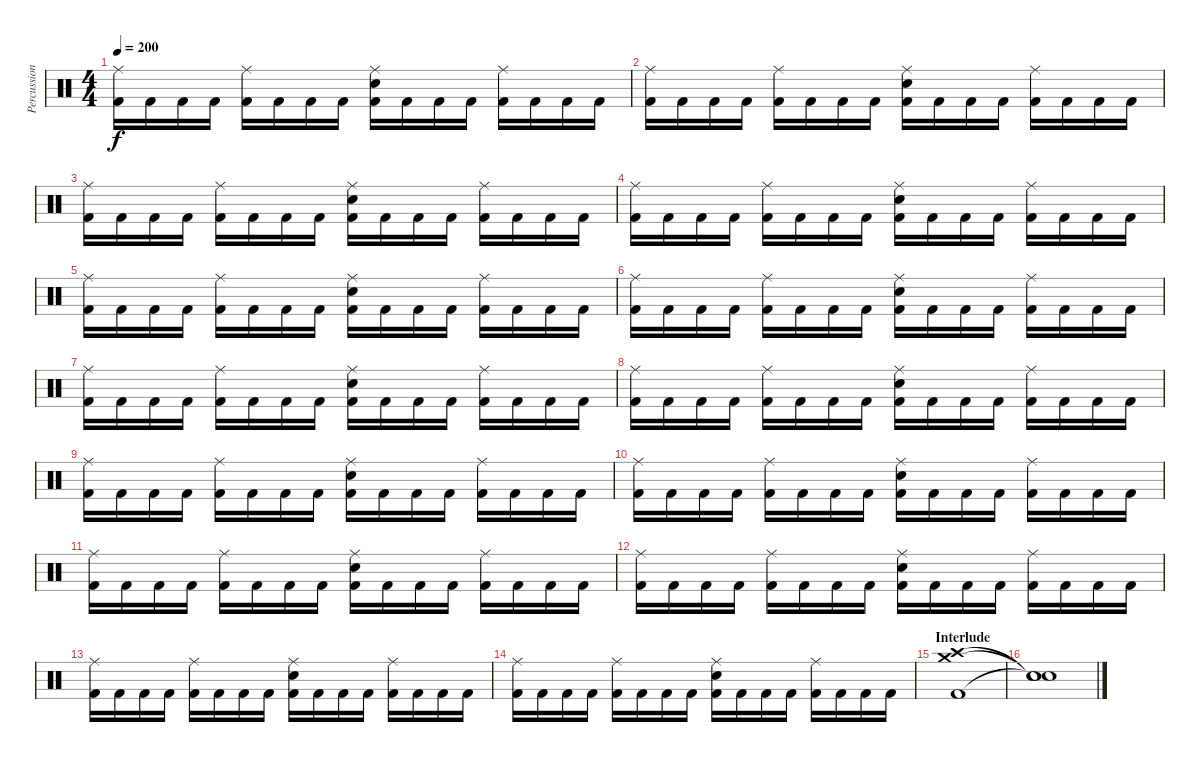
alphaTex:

\track ("Percussions" "Percussion") {instrument percussion}
\staff {score}
\articulation defaults
\ts (4 4)
\tempo 200
\clef neutral
\ks c
("Ride (middle)" "Kick (hit) 2").16{dy f} "Kick (hit) 2".16 "Kick (hit) 2".16 "Kick (hit) 2".16 ("Ride (middle)" "Kick (hit) 2").16 "Kick (hit) 2".16 "Kick (hit) 2".16 "Kick (hit) 2".16 ("Ride (middle)" "Electric Snare (hit)" "Kick (hit) 2").16 "Kick (hit) 2".16 "Kick (hit) 2".16 "Kick (hit) 2".16 ("Ride (middle)" "Kick (hit) 2").16 "Kick (hit) 2".16 "Kick (hit) 2".16 "Kick (hit) 2".16 |
("Ride (middle)" "Kick (hit) 2").16 "Kick (hit) 2".16 "Kick (hit) 2".16 "Kick (hit) 2".16 ("Ride (middle)" "Kick (hit) 2").16 "Kick (hit) 2".16 "Kick (hit) 2".16 "Kick (hit) 2".16 ("Ride (middle)" "Electric Snare (hit)" "Kick (hit) 2").16 "Kick (hit) 2".16 "Kick (hit) 2".16 "Kick (hit) 2".16 ("Ride (middle)" "Kick (hit) 2").16 "Kick (hit) 2".16 "Kick (hit) 2".16 "Kick (hit) 2".16 |
("Ride (middle)" "Kick (hit) 2").16 "Kick (hit) 2".16 "Kick (hit) 2".16 "Kick (hit) 2".16 ("Ride (middle)" "Kick (hit) 2").16 "Kick (hit) 2".16 "Kick (hit) 2".16 "Kick (hit) 2".16 ("Ride (middle)" "Electric Snare (hit)" "Kick (hit) 2").16 "Kick (hit) 2".16 "Kick (hit) 2".16 "Kick (hit) 2".16 ("Ride (middle)" "Kick (hit) 2").16 "Kick (hit) 2".16 "Kick (hit) 2".16 "Kick (hit) 2".16 |
("Ride (middle)" "Kick (hit) 2").16 "Kick (hit) 2".16 "Kick (hit) 2".16 "Kick (hit) 2".16 ("Ride (middle)" "Kick (hit) 2").16 "Kick (hit) 2".16 "Kick (hit) 2".16 "Kick (hit) 2".16 ("Ride (middle)" "Electric Snare (hit)" "Kick (hit) 2").16 "Kick (hit) 2".16 "Kick (hit) 2".16 "Kick (hit) 2".16 ("Ride (middle)" "Kick (hit) 2").16 "Kick (hit) 2".16 "Kick (hit) 2".16 "Kick (hit) 2".16 |
("Ride (middle)" "Kick (hit) 2").16 "Kick (hit) 2".16 "Kick (hit) 2".16 "Kick (hit) 2".16 ("Ride (middle)" "Kick (hit) 2").16 "Kick (hit) 2".16 "Kick (hit) 2".16 "Kick (hit) 2".16 ("Ride (middle)" "Electric Snare (hit)" "Kick (hit) 2").16 "Kick (hit) 2".16 "Kick (hit) 2".16 "Kick (hit) 2".16 ("Ride (middle)" "Kick (hit) 2").16 "Kick (hit) 2".16 "Kick (hit) 2".16 "Kick (hit) 2".16 |
("Ride (middle)" "Kick (hit) 2").16 "Kick (hit) 2".16 "Kick (hit) 2".16 "Kick (hit) 2".16 ("Ride (middle)" "Kick (hit) 2").16 "Kick (hit) 2".16 "Kick (hit) 2".16 "Kick (hit) 2".16 ("Ride (middle)" "Electric Snare (hit)" "Kick (hit) 2").16 "Kick (hit) 2".16 "Kick (hit) 2".16 "Kick (hit) 2".16 ("Ride (middle)" "Kick (hit) 2").16 "Kick (hit) 2".16 "Kick (hit) 2".16 "Kick (hit) 2".16 |
("Ride (middle)" "Kick (hit) 2").16 "Kick (hit) 2".16 "Kick (hit) 2".16 "Kick (hit) 2".16 ("Ride (middle)" "Kick (hit) 2").16 "Kick (hit) 2".16 "Kick (hit) 2".16 "Kick (hit) 2".16 ("Ride (middle)" "Electric Snare (hit)" "Kick (hit) 2").16 "Kick (hit) 2".16 "Kick (hit) 2".16 "Kick (hit) 2".16 ("Ride (middle)" "Kick (hit) 2").16 "Kick (hit) 2".16 "Kick (hit) 2".16 "Kick (hit) 2".16 |
("Ride (middle)" "Kick (hit) 2").16 "Kick (hit) 2".16 "Kick (hit) 2".16 "Kick (hit) 2".16 ("Ride (middle)" "Kick (hit) 2").16 "Kick (hit) 2".16 "Kick (hit) 2".16 "Kick (hit) 2".16 ("Ride (middle)" "Electric Snare (hit)" "Kick (hit) 2").16 "Kick (hit) 2".16 "Kick (hit) 2".16 "Kick (hit) 2".16 ("Ride (middle)" "Kick (hit) 2").16 "Kick (hit) 2".16 "Kick (hit) 2".16 "Kick (hit) 2".16 |
("Ride (middle)" "Kick (hit) 2").16 "Kick (hit) 2".16 "Kick (hit) 2".16 "Kick (hit) 2".16 ("Ride (middle)" "Kick (hit) 2").16 "Kick (hit) 2".16 "Kick (hit) 2".16 "Kick (hit) 2".16 ("Ride (middle)" "Electric Snare (hit)" "Kick (hit) 2").16 "Kick (hit) 2".16 "Kick (hit) 2".16 "Kick (hit) 2".16 ("Ride (middle)" "Kick (hit) 2").16 "Kick (hit) 2".16 "Kick (hit) 2".16 "Kick (hit) 2".16 |
("Ride (middle)" "Kick (hit) 2").16 "Kick (hit) 2".16 "Kick (hit) 2".16 "Kick (hit) 2".16 ("Ride (middle)" "Kick (hit) 2").16 "Kick (hit) 2".16 "Kick (hit) 2".16 "Kick (hit) 2".16 ("Ride (middle)" "Electric Snare (hit)" "Kick (hit) 2").16 "Kick (hit) 2".16 "Kick (hit) 2".16 "Kick (hit) 2".16 ("Ride (middle)" "Kick (hit) 2").16 "Kick (hit) 2".16 "Kick (hit) 2".16 "Kick (hit) 2".16 |
("Ride (middle)" "Kick (hit) 2").16 "Kick (hit) 2".16 "Kick (hit) 2".16 "Kick (hit) 2".16 ("Ride (middle)" "Kick (hit) 2").16 "Kick (hit) 2".16 "Kick (hit) 2".16 "Kick (hit) 2".16 ("Ride (middle)" "Electric Snare (hit)" "Kick (hit) 2").16 "Kick (hit) 2".16 "Kick (hit) 2".16 "Kick (hit) 2".16 ("Ride (middle)" "Kick (hit) 2").16 "Kick (hit) 2".16 "Kick (hit) 2".16 "Kick (hit) 2".16 |
("Ride (middle)" "Kick (hit) 2").16 "Kick (hit) 2".16 "Kick (hit) 2".16 "Kick (hit) 2".16 ("Ride (middle)" "Kick (hit) 2").16 "Kick (hit) 2".16 "Kick (hit) 2".16 "Kick (hit) 2".16 ("Ride (middle)" "Electric Snare (hit)" "Kick (hit) 2").16 "Kick (hit) 2".16 "Kick (hit) 2".16 "Kick (hit) 2".16 ("Ride (middle)" "Kick (hit) 2").16 "Kick (hit) 2".16 "Kick (hit) 2".16 "Kick (hit) 2".16 |
("Ride (middle)" "Kick (hit) 2").16 "Kick (hit) 2".16 "Kick (hit) 2".16 "Kick (hit) 2".16 ("Ride (middle)" "Kick (hit) 2").16 "Kick (hit) 2".16 "Kick (hit) 2".16 "Kick (hit) 2".16 ("Ride (middle)" "Electric Snare (hit)" "Kick (hit) 2").16 "Kick (hit) 2".16 "Kick (hit) 2".16 "Kick (hit) 2".16 ("Ride (middle)" "Kick (hit) 2").16 "Kick (hit) 2".16 "Kick (hit) 2".16 "Kick (hit) 2".16 |
("Ride (middle)" "Kick (hit) 2").16 "Kick (hit) 2".16 "Kick (hit) 2".16 "Kick (hit) 2".16 ("Ride (middle)" "Kick (hit) 2").16 "Kick (hit) 2".16 "Kick (hit) 2".16 "Kick (hit) 2".16 ("Ride (middle)" "Electric Snare (hit)" "Kick (hit) 2").16 "Kick (hit) 2".16 "Kick (hit) 2".16 "Kick (hit) 2".16 ("Ride (middle)" "Kick (hit) 2").16 "Kick (hit) 2".16 "Kick (hit) 2".16 "Kick (hit) 2".16 |
\section ("" "Interlude")
("Crash high (hit)" "Crash medium (hit)" "Kick (hit) 2").1 |
("Snare (hit)"{t} "Snare (hit)"{t} "Snare (hit)"{t}).1
